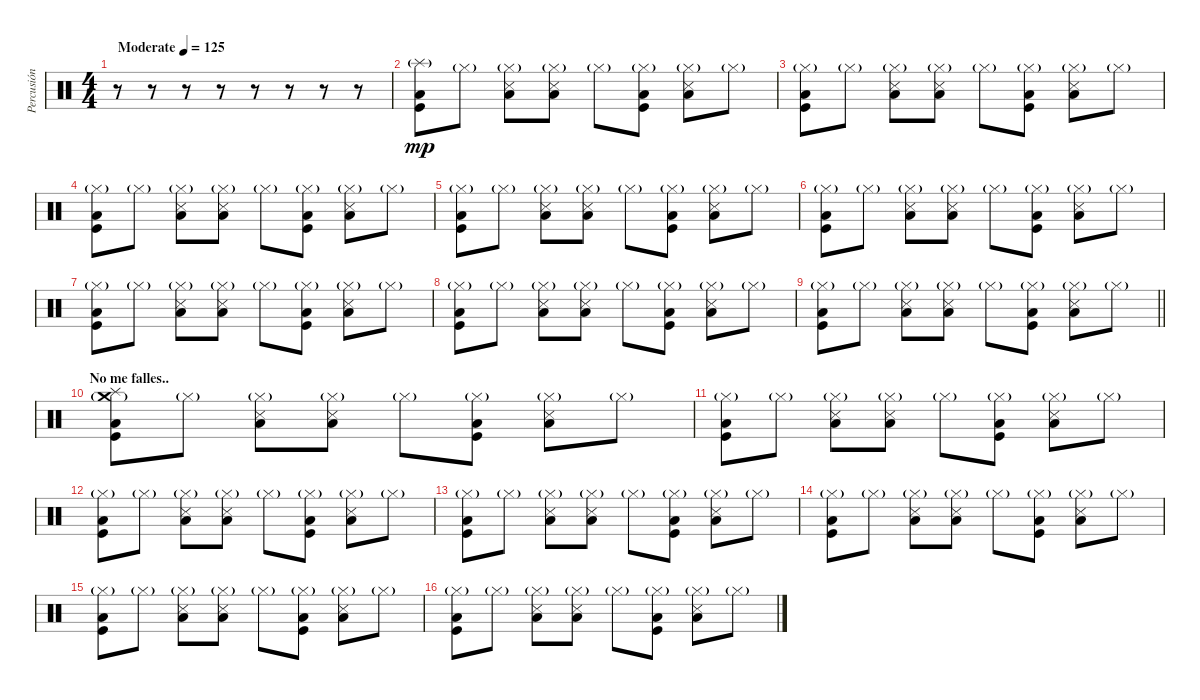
\track ("Percusión" "Percusión") {instrument percussion}
\staff {score}
\articulation defaults
\ts (4 4)
\tempo (125 "Moderate")
\clef neutral
\ks c
r.8{dy mp} r.8 r.8 r.8 r.8 r.8 r.8 r.8 |
("Splash (hit)"{g} "Low Floor Tom (hit)" "Kick (hit)").8 "Hi-Hat (closed)"{g}.8 ("Hi-Hat (closed)"{g} "Low Floor Tom (hit)" "Snare (side stick) 3").8 ("Hi-Hat (closed)"{g} "Low Floor Tom (hit)" "Snare (side stick) 3").8 "Hi-Hat (closed)"{g}.8 ("Hi-Hat (closed)"{g} "Low Floor Tom (hit)" "Kick (hit)").8 ("Hi-Hat (closed)"{g} "Low Floor Tom (hit)" "Snare (side stick) 3").8 "Hi-Hat (closed)"{g}.8 |
("Hi-Hat (closed)"{g} "Low Floor Tom (hit)" "Kick (hit)").8 "Hi-Hat (closed)"{g}.8 ("Hi-Hat (closed)"{g} "Low Floor Tom (hit)" "Snare (side stick) 3").8 ("Hi-Hat (closed)"{g} "Low Floor Tom (hit)" "Snare (side stick) 3").8 "Hi-Hat (closed)"{g}.8 ("Hi-Hat (closed)"{g} "Low Floor Tom (hit)" "Kick (hit)").8 ("Hi-Hat (closed)"{g} "Low Floor Tom (hit)" "Snare (side stick) 3").8 "Hi-Hat (closed)"{g}.8 |
("Hi-Hat (closed)"{g} "Low Floor Tom (hit)" "Kick (hit)").8 "Hi-Hat (closed)"{g}.8 ("Hi-Hat (closed)"{g} "Low Floor Tom (hit)" "Snare (side stick) 3").8 ("Hi-Hat (closed)"{g} "Low Floor Tom (hit)" "Snare (side stick) 3").8 "Hi-Hat (closed)"{g}.8 ("Hi-Hat (closed)"{g} "Low Floor Tom (hit)" "Kick (hit)").8 ("Hi-Hat (closed)"{g} "Low Floor Tom (hit)" "Snare (side stick) 3").8 "Hi-Hat (closed)"{g}.8 |
("Hi-Hat (closed)"{g} "Low Floor Tom (hit)" "Kick (hit)").8 "Hi-Hat (closed)"{g}.8 ("Hi-Hat (closed)"{g} "Low Floor Tom (hit)" "Snare (side stick) 3").8 ("Hi-Hat (closed)"{g} "Low Floor Tom (hit)" "Snare (side stick) 3").8 "Hi-Hat (closed)"{g}.8 ("Hi-Hat (closed)"{g} "Low Floor Tom (hit)" "Kick (hit)").8 ("Hi-Hat (closed)"{g} "Low Floor Tom (hit)" "Snare (side stick) 3").8 "Hi-Hat (closed)"{g}.8 |
("Hi-Hat (closed)"{g} "Low Floor Tom (hit)" "Kick (hit)").8 "Hi-Hat (closed)"{g}.8 ("Hi-Hat (closed)"{g} "Low Floor Tom (hit)" "Snare (side stick) 3").8 ("Hi-Hat (closed)"{g} "Low Floor Tom (hit)" "Snare (side stick) 3").8 "Hi-Hat (closed)"{g}.8 ("Hi-Hat (closed)"{g} "Low Floor Tom (hit)" "Kick (hit)").8 ("Hi-Hat (closed)"{g} "Low Floor Tom (hit)" "Snare (side stick) 3").8 "Hi-Hat (closed)"{g}.8 |
("Hi-Hat (closed)"{g} "Low Floor Tom (hit)" "Kick (hit)").8 "Hi-Hat (closed)"{g}.8 ("Hi-Hat (closed)"{g} "Low Floor Tom (hit)" "Snare (side stick) 3").8 ("Hi-Hat (closed)"{g} "Low Floor Tom (hit)" "Snare (side stick) 3").8 "Hi-Hat (closed)"{g}.8 ("Hi-Hat (closed)"{g} "Low Floor Tom (hit)" "Kick (hit)").8 ("Hi-Hat (closed)"{g} "Low Floor Tom (hit)" "Snare (side stick) 3").8 "Hi-Hat (closed)"{g}.8 |
("Hi-Hat (closed)"{g} "Low Floor Tom (hit)" "Kick (hit)").8 "Hi-Hat (closed)"{g}.8 ("Hi-Hat (closed)"{g} "Low Floor Tom (hit)" "Snare (side stick) 3").8 ("Hi-Hat (closed)"{g} "Low Floor Tom (hit)" "Snare (side stick) 3").8 "Hi-Hat (closed)"{g}.8 ("Hi-Hat (closed)"{g} "Low Floor Tom (hit)" "Kick (hit)").8 ("Hi-Hat (closed)"{g} "Low Floor Tom (hit)" "Snare (side stick) 3").8 "Hi-Hat (closed)"{g}.8 |
\barLineRight lightlight
("Hi-Hat (closed)"{g} "Low Floor Tom (hit)" "Kick (hit)").8 "Hi-Hat (closed)"{g}.8 ("Hi-Hat (closed)"{g} "Low Floor Tom (hit)" "Snare (side stick) 3").8 ("Hi-Hat (closed)"{g} "Low Floor Tom (hit)" "Snare (side stick) 3").8 "Hi-Hat (closed)"{g}.8 ("Hi-Hat (closed)"{g} "Low Floor Tom (hit)" "Kick (hit)").8 ("Hi-Hat (closed)"{g} "Low Floor Tom (hit)" "Snare (side stick) 3").8 "Hi-Hat (closed)"{g}.8 |
\section ("" "No me falles..")
("Splash (hit)" "Crash medium (hit)"{g} "Low Floor Tom (hit)" "Kick (hit)").8 "Hi-Hat (closed)"{g}.8 ("Hi-Hat (closed)"{g} "Low Floor Tom (hit)" "Snare (side stick) 3").8 ("Hi-Hat (closed)"{g} "Low Floor Tom (hit)" "Snare (side stick) 3").8 "Hi-Hat (closed)"{g}.8 ("Hi-Hat (closed)"{g} "Low Floor Tom (hit)" "Kick (hit)").8 ("Hi-Hat (closed)"{g} "Low Floor Tom (hit)" "Snare (side stick) 3").8 "Hi-Hat (closed)"{g}.8 |
("Hi-Hat (closed)"{g} "Low Floor Tom (hit)" "Kick (hit)").8 "Hi-Hat (closed)"{g}.8 ("Hi-Hat (closed)"{g} "Low Floor Tom (hit)" "Snare (side stick) 3").8 ("Hi-Hat (closed)"{g} "Low Floor Tom (hit)" "Snare (side stick) 3").8 "Hi-Hat (closed)"{g}.8 ("Hi-Hat (closed)"{g} "Low Floor Tom (hit)" "Kick (hit)").8 ("Hi-Hat (closed)"{g} "Low Floor Tom (hit)" "Snare (side stick) 3").8 "Hi-Hat (closed)"{g}.8 |
("Hi-Hat (closed)"{g} "Low Floor Tom (hit)" "Kick (hit)").8 "Hi-Hat (closed)"{g}.8 ("Hi-Hat (closed)"{g} "Low Floor Tom (hit)" "Snare (side stick) 3").8 ("Hi-Hat (closed)"{g} "Low Floor Tom (hit)" "Snare (side stick) 3").8 "Hi-Hat (closed)"{g}.8 ("Hi-Hat (closed)"{g} "Low Floor Tom (hit)" "Kick (hit)").8 ("Hi-Hat (closed)"{g} "Low Floor Tom (hit)" "Snare (side stick) 3").8 "Hi-Hat (closed)"{g}.8 |
("Hi-Hat (closed)"{g} "Low Floor Tom (hit)" "Kick (hit)").8 "Hi-Hat (closed)"{g}.8 ("Hi-Hat (closed)"{g} "Low Floor Tom (hit)" "Snare (side stick) 3").8 ("Hi-Hat (closed)"{g} "Low Floor Tom (hit)" "Snare (side stick) 3").8 "Hi-Hat (closed)"{g}.8 ("Hi-Hat (closed)"{g} "Low Floor Tom (hit)" "Kick (hit)").8 ("Hi-Hat (closed)"{g} "Low Floor Tom (hit)" "Snare (side stick) 3").8 "Hi-Hat (closed)"{g}.8 |
("Hi-Hat (closed)"{g} "Low Floor Tom (hit)" "Kick (hit)").8 "Hi-Hat (closed)"{g}.8 ("Hi-Hat (closed)"{g} "Low Floor Tom (hit)" "Snare (side stick) 3").8 ("Hi-Hat (closed)"{g} "Low Floor Tom (hit)" "Snare (side stick) 3").8 "Hi-Hat (closed)"{g}.8 ("Hi-Hat (closed)"{g} "Low Floor Tom (hit)" "Kick (hit)").8 ("Hi-Hat (closed)"{g} "Low Floor Tom (hit)" "Snare (side stick) 3").8 "Hi-Hat (closed)"{g}.8 |
("Hi-Hat (closed)"{g} "Low Floor Tom (hit)" "Kick (hit)").8 "Hi-Hat (closed)"{g}.8 ("Hi-Hat (closed)"{g} "Low Floor Tom (hit)" "Snare (side stick) 3").8 ("Hi-Hat (closed)"{g} "Low Floor Tom (hit)" "Snare (side stick) 3").8 "Hi-Hat (closed)"{g}.8 ("Hi-Hat (closed)"{g} "Low Floor Tom (hit)" "Kick (hit)").8 ("Hi-Hat (closed)"{g} "Low Floor Tom (hit)" "Snare (side stick) 3").8 "Hi-Hat (closed)"{g}.8 |
("Hi-Hat (closed)"{g} "Low Floor Tom (hit)" "Kick (hit)").8 "Hi-Hat (closed)"{g}.8 ("Hi-Hat (closed)"{g} "Low Floor Tom (hit)" "Snare (side stick) 3").8 ("Hi-Hat (closed)"{g} "Low Floor Tom (hit)" "Snare (side stick) 3").8 "Hi-Hat (closed)"{g}.8 ("Hi-Hat (closed)"{g} "Low Floor Tom (hit)" "Kick (hit)").8 ("Hi-Hat (closed)"{g} "Low Floor Tom (hit)" "Snare (side stick) 3").8 "Hi-Hat (closed)"{g}.8
